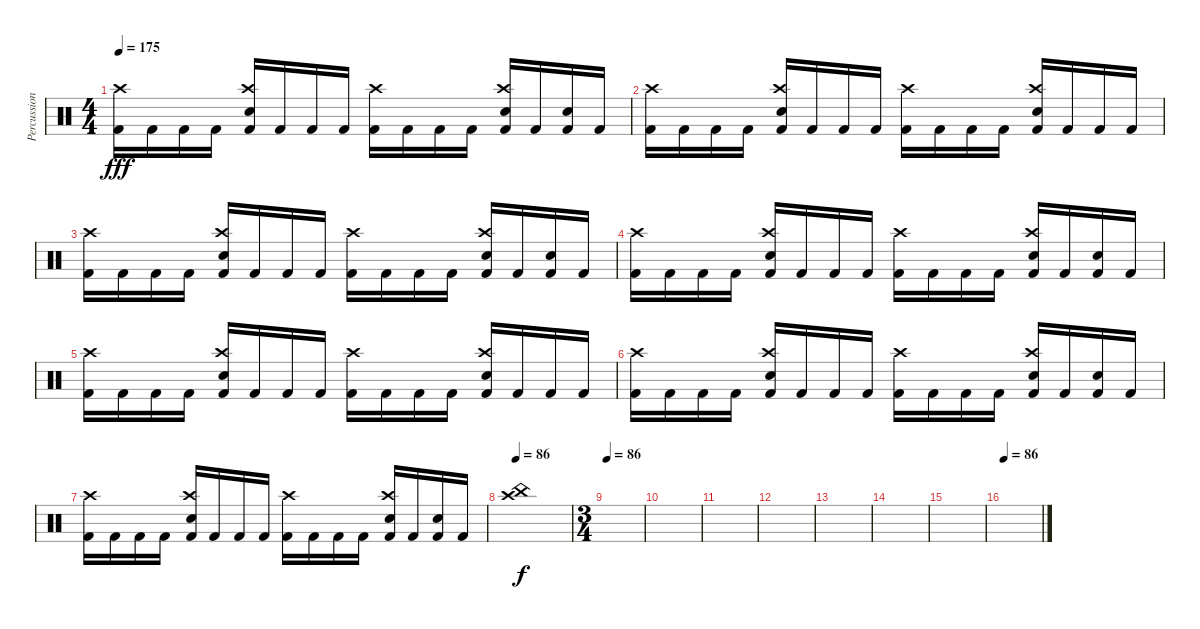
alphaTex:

\track ("Percussion" "Percussion") {instrument percussion}
\staff {score}
\articulation defaults
\ts (4 4)
\tempo 175
\clef neutral
\ks c
("Kick (hit) 2" "Crash high (hit)").16{dy fff} "Kick (hit) 2".16 "Kick (hit) 2".16 "Kick (hit) 2".16 ("Kick (hit) 2" "Electric Snare (hit)" "Crash high (hit)").16 "Kick (hit) 2".16 "Kick (hit) 2".16 "Kick (hit) 2".16 ("Kick (hit) 2" "Crash high (hit)").16 "Kick (hit) 2".16 "Kick (hit) 2".16 "Kick (hit) 2".16 ("Kick (hit) 2" "Electric Snare (hit)" "Crash high (hit)").16 "Kick (hit) 2".16 ("Kick (hit) 2" "Electric Snare (hit)").16 "Kick (hit) 2".16 |
("Kick (hit) 2" "Crash high (hit)").16 "Kick (hit) 2".16 "Kick (hit) 2".16 "Kick (hit) 2".16 ("Kick (hit) 2" "Electric Snare (hit)" "Crash high (hit)").16 "Kick (hit) 2".16 "Kick (hit) 2".16 "Kick (hit) 2".16 ("Kick (hit) 2" "Crash high (hit)").16 "Kick (hit) 2".16 "Kick (hit) 2".16 "Kick (hit) 2".16 ("Kick (hit) 2" "Electric Snare (hit)" "Crash high (hit)").16 "Kick (hit) 2".16 "Kick (hit) 2".16 "Kick (hit) 2".16 |
("Kick (hit) 2" "Crash high (hit)").16 "Kick (hit) 2".16 "Kick (hit) 2".16 "Kick (hit) 2".16 ("Kick (hit) 2" "Electric Snare (hit)" "Crash high (hit)").16 "Kick (hit) 2".16 "Kick (hit) 2".16 "Kick (hit) 2".16 ("Kick (hit) 2" "Crash high (hit)").16 "Kick (hit) 2".16 "Kick (hit) 2".16 "Kick (hit) 2".16 ("Kick (hit) 2" "Electric Snare (hit)" "Crash high (hit)").16 "Kick (hit) 2".16 ("Kick (hit) 2" "Electric Snare (hit)").16 "Kick (hit) 2".16 |
("Kick (hit) 2" "Crash high (hit)").16 "Kick (hit) 2".16 "Kick (hit) 2".16 "Kick (hit) 2".16 ("Kick (hit) 2" "Electric Snare (hit)" "Crash high (hit)").16 "Kick (hit) 2".16 "Kick (hit) 2".16 "Kick (hit) 2".16 ("Kick (hit) 2" "Crash high (hit)").16 "Kick (hit) 2".16 "Kick (hit) 2".16 "Kick (hit) 2".16 ("Kick (hit) 2" "Electric Snare (hit)" "Crash high (hit)").16 "Kick (hit) 2".16 ("Kick (hit) 2" "Electric Snare (hit)").16 "Kick (hit) 2".16 |
("Kick (hit) 2" "Crash high (hit)").16 "Kick (hit) 2".16 "Kick (hit) 2".16 "Kick (hit) 2".16 ("Kick (hit) 2" "Electric Snare (hit)" "Crash high (hit)").16 "Kick (hit) 2".16 "Kick (hit) 2".16 "Kick (hit) 2".16 ("Kick (hit) 2" "Crash high (hit)").16 "Kick (hit) 2".16 "Kick (hit) 2".16 "Kick (hit) 2".16 ("Kick (hit) 2" "Electric Snare (hit)" "Crash high (hit)").16 "Kick (hit) 2".16 "Kick (hit) 2".16 "Kick (hit) 2".16 |
("Kick (hit) 2" "Crash high (hit)").16 "Kick (hit) 2".16 "Kick (hit) 2".16 "Kick (hit) 2".16 ("Kick (hit) 2" "Electric Snare (hit)" "Crash high (hit)").16 "Kick (hit) 2".16 "Kick (hit) 2".16 "Kick (hit) 2".16 ("Kick (hit) 2" "Crash high (hit)").16 "Kick (hit) 2".16 "Kick (hit) 2".16 "Kick (hit) 2".16 ("Kick (hit) 2" "Electric Snare (hit)" "Crash high (hit)").16 "Kick (hit) 2".16 ("Kick (hit) 2" "Electric Snare (hit)").16 "Kick (hit) 2".16 |
("Kick (hit) 2" "Crash high (hit)").16 "Kick (hit) 2".16 "Kick (hit) 2".16 "Kick (hit) 2".16 ("Kick (hit) 2" "Electric Snare (hit)" "Crash high (hit)").16 "Kick (hit) 2".16 "Kick (hit) 2".16 "Kick (hit) 2".16 ("Kick (hit) 2" "Crash high (hit)").16 "Kick (hit) 2".16 "Kick (hit) 2".16 "Kick (hit) 2".16 ("Kick (hit) 2" "Electric Snare (hit)" "Crash high (hit)").16 "Kick (hit) 2".16 ("Kick (hit) 2" "Electric Snare (hit)").16 "Kick (hit) 2".16 |
\tempo 86
("China (hit)" "Crash high (hit)").1{dy f} |
\ts (3 4)
\tempo 86
|
|
|
|
|
|
|
\tempo 86
